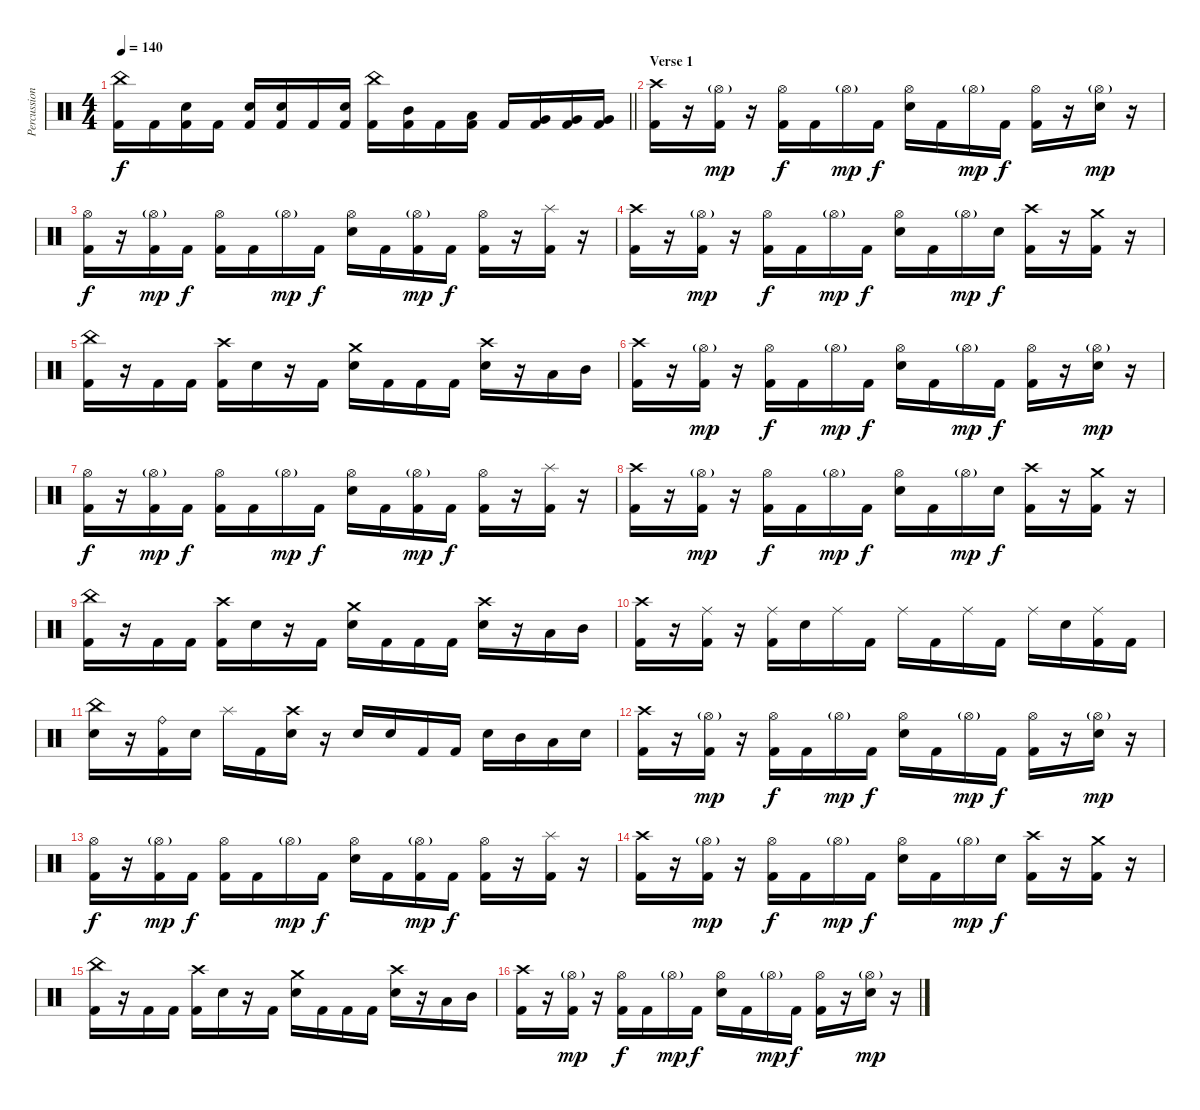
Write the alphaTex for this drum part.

\track ("Percussion" "Percussion") {instrument percussion}
\staff {score}
\articulation defaults
\ts (4 4)
\tempo 140
\clef neutral
\barLineRight lightlight
\ks c
("China (hit)" "Kick (hit) 2").16{dy f} "Kick (hit) 2".16 ("Electric Snare (hit)" "Kick (hit) 2").16 "Kick (hit) 2".16 ("Electric Snare (hit)" "Kick (hit) 2").16 ("Electric Snare (hit)" "Kick (hit) 2").16 "Kick (hit) 2".16 ("Electric Snare (hit)" "Kick (hit) 2").16 ("China (hit)" "Kick (hit) 2").16 ("Mid Tom (hit)" "Kick (hit) 2").16 "Kick (hit) 2".16 ("Low Tom (hit)" "Kick (hit) 2").16 "Kick (hit) 2".16 ("Very Low Tom (hit)" "Kick (hit) 2").16 ("Very Low Tom (hit)" "Kick (hit) 2").16 ("Very Low Tom (hit)" "Kick (hit) 2").16 |
\section ("" "Verse 1")
("Crash high (hit)" "Kick (hit) 2").16 r.16 ("Hi-Hat (open)"{g} "Kick (hit) 2").16{dy mp} r.16 ("Hi-Hat (open)" "Kick (hit) 2").16{dy f} "Kick (hit) 2".16 "Hi-Hat (open)"{g}.16{dy mp} "Kick (hit) 2".16{dy f} ("Hi-Hat (open)" "Electric Snare (hit)").16 "Kick (hit) 2".16 "Hi-Hat (open)"{g}.16{dy mp} "Kick (hit) 2".16{dy f} ("Hi-Hat (open)" "Kick (hit) 2").16 r.16 ("Hi-Hat (open)"{g} "Electric Snare (hit)").16{dy mp} r.16 |
("Hi-Hat (open)" "Kick (hit) 2").16{dy f} r.16 ("Hi-Hat (open)"{g} "Kick (hit) 2").16{dy mp} "Kick (hit) 2".16{dy f} ("Hi-Hat (open)" "Kick (hit) 2").16 "Kick (hit) 2".16 "Hi-Hat (open)"{g}.16{dy mp} "Kick (hit) 2".16{dy f} ("Hi-Hat (open)" "Electric Snare (hit)").16 "Kick (hit) 2".16 ("Hi-Hat (open)"{g} "Kick (hit) 2").16{dy mp} "Kick (hit) 2".16{dy f} ("Hi-Hat (open)" "Kick (hit) 2").16 r.16 ("Splash (hit)" "Kick (hit) 2").16 r.16 |
("Crash high (hit)" "Kick (hit) 2").16 r.16 ("Hi-Hat (open)"{g} "Kick (hit) 2").16{dy mp} r.16 ("Hi-Hat (open)" "Kick (hit) 2").16{dy f} "Kick (hit) 2".16 "Hi-Hat (open)"{g}.16{dy mp} "Kick (hit) 2".16{dy f} ("Hi-Hat (open)" "Electric Snare (hit)").16 "Kick (hit) 2".16 "Hi-Hat (open)"{g}.16{dy mp} "Electric Snare (hit)".16{dy f} ("Crash high (hit)" "Kick (hit) 2").16 r.16 ("Crash medium (hit)" "Kick (hit) 2").16 r.16 |
("China (hit)" "Kick (hit) 2").16 r.16 "Kick (hit) 2".16 "Kick (hit) 2".16 ("Crash high (hit)" "Kick (hit) 2").16 "Electric Snare (hit)".16 r.16 "Kick (hit) 2".16 ("Crash medium (hit)" "Electric Snare (hit)").16 "Kick (hit) 2".16 "Kick (hit) 2".16 "Kick (hit) 2".16 ("Crash high (hit)" "Electric Snare (hit)").16 r.16 "Low Tom (hit)".16 "Mid Tom (hit)".16 |
("Crash high (hit)" "Kick (hit) 2").16 r.16 ("Hi-Hat (open)"{g} "Kick (hit) 2").16{dy mp} r.16 ("Hi-Hat (open)" "Kick (hit) 2").16{dy f} "Kick (hit) 2".16 "Hi-Hat (open)"{g}.16{dy mp} "Kick (hit) 2".16{dy f} ("Hi-Hat (open)" "Electric Snare (hit)").16 "Kick (hit) 2".16 "Hi-Hat (open)"{g}.16{dy mp} "Kick (hit) 2".16{dy f} ("Hi-Hat (open)" "Kick (hit) 2").16 r.16 ("Hi-Hat (open)"{g} "Electric Snare (hit)").16{dy mp} r.16 |
("Hi-Hat (open)" "Kick (hit) 2").16{dy f} r.16 ("Hi-Hat (open)"{g} "Kick (hit) 2").16{dy mp} "Kick (hit) 2".16{dy f} ("Hi-Hat (open)" "Kick (hit) 2").16 "Kick (hit) 2".16 "Hi-Hat (open)"{g}.16{dy mp} "Kick (hit) 2".16{dy f} ("Hi-Hat (open)" "Electric Snare (hit)").16 "Kick (hit) 2".16 ("Hi-Hat (open)"{g} "Kick (hit) 2").16{dy mp} "Kick (hit) 2".16{dy f} ("Hi-Hat (open)" "Kick (hit) 2").16 r.16 ("Splash (hit)" "Kick (hit) 2").16 r.16 |
("Crash high (hit)" "Kick (hit) 2").16 r.16 ("Hi-Hat (open)"{g} "Kick (hit) 2").16{dy mp} r.16 ("Hi-Hat (open)" "Kick (hit) 2").16{dy f} "Kick (hit) 2".16 "Hi-Hat (open)"{g}.16{dy mp} "Kick (hit) 2".16{dy f} ("Hi-Hat (open)" "Electric Snare (hit)").16 "Kick (hit) 2".16 "Hi-Hat (open)"{g}.16{dy mp} "Electric Snare (hit)".16{dy f} ("Crash high (hit)" "Kick (hit) 2").16 r.16 ("Crash medium (hit)" "Kick (hit) 2").16 r.16 |
("China (hit)" "Kick (hit) 2").16 r.16 "Kick (hit) 2".16 "Kick (hit) 2".16 ("Crash high (hit)" "Kick (hit) 2").16 "Electric Snare (hit)".16 r.16 "Kick (hit) 2".16 ("Crash medium (hit)" "Electric Snare (hit)").16 "Kick (hit) 2".16 "Kick (hit) 2".16 "Kick (hit) 2".16 ("Crash high (hit)" "Electric Snare (hit)").16 r.16 "Low Tom (hit)".16 "Mid Tom (hit)".16 |
("Crash high (hit)" "Kick (hit) 2").16 r.16 ("Ride (middle)" "Kick (hit) 2").16 r.16 ("Ride (middle)" "Kick (hit) 2").16 "Electric Snare (hit)".16 "Ride (middle)".16 "Kick (hit) 2".16 "Ride (middle)".16 "Kick (hit) 2".16 "Ride (middle)".16 "Kick (hit) 2".16 "Ride (middle)".16 "Electric Snare (hit)".16 ("Ride (middle)" "Kick (hit) 2").16 "Kick (hit) 2".16 |
("China (hit)" "Electric Snare (hit)").16 r.16 ("Ride (bell)" "Kick (hit) 2").16 "Electric Snare (hit)".16 "Splash (hit)".16 "Kick (hit) 2".16 ("Crash high (hit)" "Electric Snare (hit)").16 r.16 "Electric Snare (hit)".16 "Electric Snare (hit)".16 "Kick (hit) 2".16 "Kick (hit) 2".16 "Electric Snare (hit)".16 "Mid Tom (hit)".16 "Low Tom (hit)".16 "Electric Snare (hit)".16 |
("Crash high (hit)" "Kick (hit) 2").16 r.16 ("Hi-Hat (open)"{g} "Kick (hit) 2").16{dy mp} r.16 ("Hi-Hat (open)" "Kick (hit) 2").16{dy f} "Kick (hit) 2".16 "Hi-Hat (open)"{g}.16{dy mp} "Kick (hit) 2".16{dy f} ("Hi-Hat (open)" "Electric Snare (hit)").16 "Kick (hit) 2".16 "Hi-Hat (open)"{g}.16{dy mp} "Kick (hit) 2".16{dy f} ("Hi-Hat (open)" "Kick (hit) 2").16 r.16 ("Hi-Hat (open)"{g} "Electric Snare (hit)").16{dy mp} r.16 |
("Hi-Hat (open)" "Kick (hit) 2").16{dy f} r.16 ("Hi-Hat (open)"{g} "Kick (hit) 2").16{dy mp} "Kick (hit) 2".16{dy f} ("Hi-Hat (open)" "Kick (hit) 2").16 "Kick (hit) 2".16 "Hi-Hat (open)"{g}.16{dy mp} "Kick (hit) 2".16{dy f} ("Hi-Hat (open)" "Electric Snare (hit)").16 "Kick (hit) 2".16 ("Hi-Hat (open)"{g} "Kick (hit) 2").16{dy mp} "Kick (hit) 2".16{dy f} ("Hi-Hat (open)" "Kick (hit) 2").16 r.16 ("Splash (hit)" "Kick (hit) 2").16 r.16 |
("Crash high (hit)" "Kick (hit) 2").16 r.16 ("Hi-Hat (open)"{g} "Kick (hit) 2").16{dy mp} r.16 ("Hi-Hat (open)" "Kick (hit) 2").16{dy f} "Kick (hit) 2".16 "Hi-Hat (open)"{g}.16{dy mp} "Kick (hit) 2".16{dy f} ("Hi-Hat (open)" "Electric Snare (hit)").16 "Kick (hit) 2".16 "Hi-Hat (open)"{g}.16{dy mp} "Electric Snare (hit)".16{dy f} ("Crash high (hit)" "Kick (hit) 2").16 r.16 ("Crash medium (hit)" "Kick (hit) 2").16 r.16 |
("China (hit)" "Kick (hit) 2").16 r.16 "Kick (hit) 2".16 "Kick (hit) 2".16 ("Crash high (hit)" "Kick (hit) 2").16 "Electric Snare (hit)".16 r.16 "Kick (hit) 2".16 ("Crash medium (hit)" "Electric Snare (hit)").16 "Kick (hit) 2".16 "Kick (hit) 2".16 "Kick (hit) 2".16 ("Crash high (hit)" "Electric Snare (hit)").16 r.16 "Low Tom (hit)".16 "Mid Tom (hit)".16 |
("Crash high (hit)" "Kick (hit) 2").16 r.16 ("Hi-Hat (open)"{g} "Kick (hit) 2").16{dy mp} r.16 ("Hi-Hat (open)" "Kick (hit) 2").16{dy f} "Kick (hit) 2".16 "Hi-Hat (open)"{g}.16{dy mp} "Kick (hit) 2".16{dy f} ("Hi-Hat (open)" "Electric Snare (hit)").16 "Kick (hit) 2".16 "Hi-Hat (open)"{g}.16{dy mp} "Kick (hit) 2".16{dy f} ("Hi-Hat (open)" "Kick (hit) 2").16 r.16 ("Hi-Hat (open)"{g} "Electric Snare (hit)").16{dy mp} r.16
